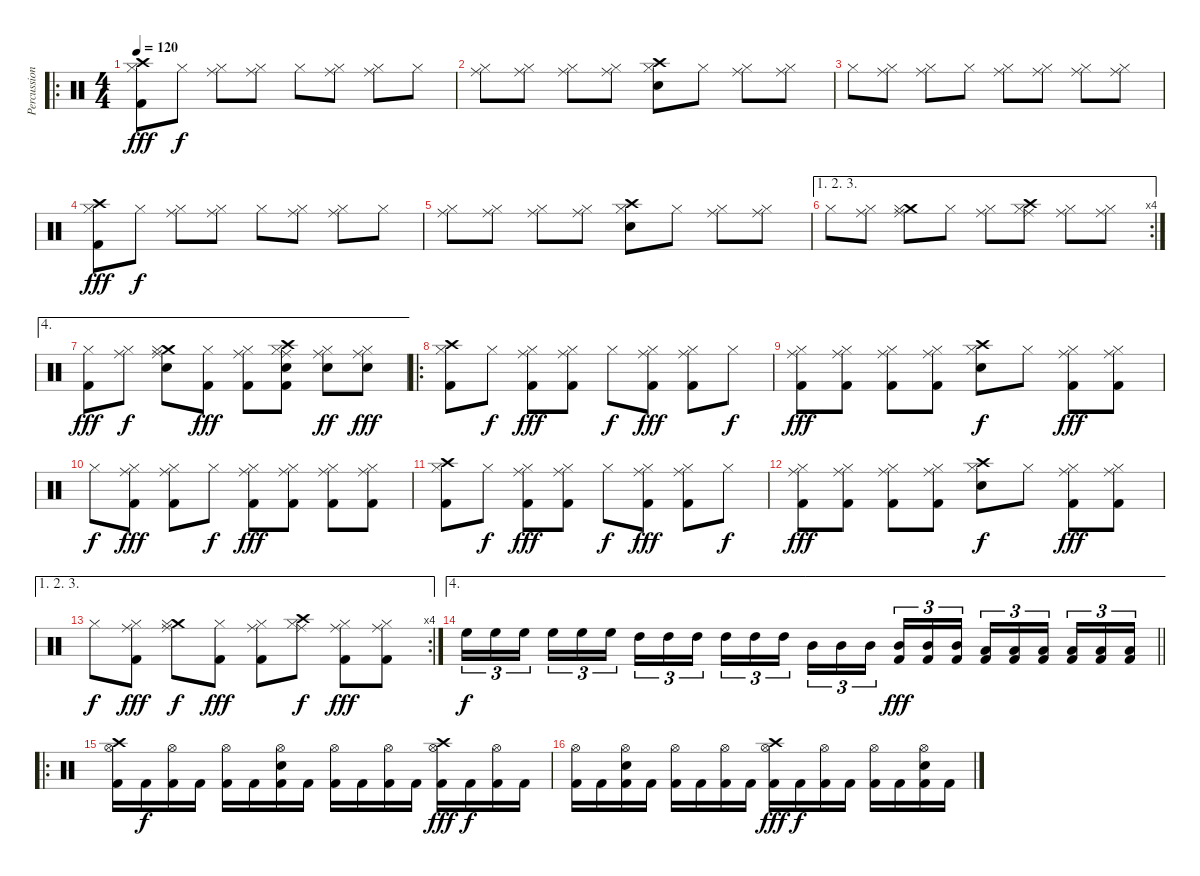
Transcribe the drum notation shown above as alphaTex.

\track ("Percussion" "Percussion") {instrument percussion}
\staff {score}
\articulation defaults
\ro
\ts (4 4)
\tempo 120
\clef neutral
\ks c
("Crash high (hit)" "Hi-Hat (closed)" "Kick (hit) 2").8{dy fff} "Hi-Hat (closed)".8{dy f} ("Ride (middle)" "Hi-Hat (closed)").8 ("Ride (middle)" "Hi-Hat (closed)").8 "Hi-Hat (closed)".8 ("Ride (middle)" "Hi-Hat (closed)").8 ("Ride (middle)" "Hi-Hat (closed)").8 "Hi-Hat (closed)".8 |
("Ride (middle)" "Hi-Hat (closed)").8 ("Ride (middle)" "Hi-Hat (closed)").8 ("Ride (middle)" "Hi-Hat (closed)").8 ("Ride (middle)" "Hi-Hat (closed)").8 ("Crash high (hit)" "Snare (hit) 2" "Hi-Hat (closed)").8 "Hi-Hat (closed)".8 ("Ride (middle)" "Hi-Hat (closed)").8 ("Ride (middle)" "Hi-Hat (closed)").8 |
"Hi-Hat (closed)".8 ("Ride (middle)" "Hi-Hat (closed)").8 ("Ride (middle)" "Hi-Hat (closed)").8 "Hi-Hat (closed)".8 ("Ride (middle)" "Hi-Hat (closed)").8 ("Ride (middle)" "Hi-Hat (closed)").8 ("Ride (middle)" "Hi-Hat (closed)").8 ("Ride (middle)" "Hi-Hat (closed)").8 |
("Crash high (hit)" "Hi-Hat (closed)" "Kick (hit) 2").8{dy fff} "Hi-Hat (closed)".8{dy f} ("Ride (middle)" "Hi-Hat (closed)").8 ("Ride (middle)" "Hi-Hat (closed)").8 "Hi-Hat (closed)".8 ("Ride (middle)" "Hi-Hat (closed)").8 ("Ride (middle)" "Hi-Hat (closed)").8 "Hi-Hat (closed)".8 |
("Ride (middle)" "Hi-Hat (closed)").8 ("Ride (middle)" "Hi-Hat (closed)").8 ("Ride (middle)" "Hi-Hat (closed)").8 ("Ride (middle)" "Hi-Hat (closed)").8 ("Crash high (hit)" "Snare (hit) 2" "Hi-Hat (closed)").8 "Hi-Hat (closed)".8 ("Ride (middle)" "Hi-Hat (closed)").8 ("Ride (middle)" "Hi-Hat (closed)").8 |
\ae (1 2 3)
\rc 4 "Hi-Hat (closed)".8
("Ride (middle)" "Hi-Hat (closed)").8 ("Crash medium (hit)" "Ride (middle)" "Hi-Hat (closed)").8 "Hi-Hat (closed)".8 ("Ride (middle)" "Hi-Hat (closed)").8 ("Crash high (hit)" "Ride (middle)" "Hi-Hat (closed)").8 ("Ride (middle)" "Hi-Hat (closed)").8 ("Ride (middle)" "Hi-Hat (closed)").8 |
\ae 4
("Hi-Hat (closed)" "Kick (hit) 2").8{dy fff} ("Ride (middle)" "Hi-Hat (closed)").8{dy f} ("Crash medium (hit)" "Ride (middle)" "Snare (hit) 2" "Hi-Hat (closed)").8 ("Hi-Hat (closed)" "Kick (hit) 2").8{dy fff} ("Ride (middle)" "Hi-Hat (closed)" "Kick (hit) 2").8 ("Crash high (hit)" "Ride (middle)" "Snare (hit) 2" "Hi-Hat (closed)" "Kick (hit) 2").8 ("Ride (middle)" "Snare (hit) 2" "Hi-Hat (closed)").8{dy ff} ("Ride (middle)" "Snare (hit) 2" "Hi-Hat (closed)").8{dy fff} |
\ro
("Crash high (hit)" "Hi-Hat (closed)" "Kick (hit) 2").8 "Hi-Hat (closed)".8{dy f} ("Ride (middle)" "Hi-Hat (closed)" "Kick (hit) 2").8{dy fff} ("Ride (middle)" "Hi-Hat (closed)" "Kick (hit) 2").8 "Hi-Hat (closed)".8{dy f} ("Ride (middle)" "Hi-Hat (closed)" "Kick (hit) 2").8{dy fff} ("Ride (middle)" "Hi-Hat (closed)" "Kick (hit) 2").8 "Hi-Hat (closed)".8{dy f} |
("Ride (middle)" "Hi-Hat (closed)" "Kick (hit) 2").8{dy fff} ("Ride (middle)" "Hi-Hat (closed)" "Kick (hit) 2").8 ("Ride (middle)" "Hi-Hat (closed)" "Kick (hit) 2").8 ("Ride (middle)" "Hi-Hat (closed)" "Kick (hit) 2").8 ("Crash high (hit)" "Snare (hit) 2" "Hi-Hat (closed)").8{dy f} "Hi-Hat (closed)".8 ("Ride (middle)" "Hi-Hat (closed)" "Kick (hit) 2").8{dy fff} ("Ride (middle)" "Hi-Hat (closed)" "Kick (hit) 2").8 |
"Hi-Hat (closed)".8{dy f} ("Ride (middle)" "Hi-Hat (closed)" "Kick (hit) 2").8{dy fff} ("Ride (middle)" "Hi-Hat (closed)" "Kick (hit) 2").8 "Hi-Hat (closed)".8{dy f} ("Ride (middle)" "Hi-Hat (closed)" "Kick (hit) 2").8{dy fff} ("Ride (middle)" "Hi-Hat (closed)" "Kick (hit) 2").8 ("Ride (middle)" "Hi-Hat (closed)" "Kick (hit) 2").8 ("Ride (middle)" "Hi-Hat (closed)" "Kick (hit) 2").8 |
("Crash high (hit)" "Hi-Hat (closed)" "Kick (hit) 2").8 "Hi-Hat (closed)".8{dy f} ("Ride (middle)" "Hi-Hat (closed)" "Kick (hit) 2").8{dy fff} ("Ride (middle)" "Hi-Hat (closed)" "Kick (hit) 2").8 "Hi-Hat (closed)".8{dy f} ("Ride (middle)" "Hi-Hat (closed)" "Kick (hit) 2").8{dy fff} ("Ride (middle)" "Hi-Hat (closed)" "Kick (hit) 2").8 "Hi-Hat (closed)".8{dy f} |
("Ride (middle)" "Hi-Hat (closed)" "Kick (hit) 2").8{dy fff} ("Ride (middle)" "Hi-Hat (closed)" "Kick (hit) 2").8 ("Ride (middle)" "Hi-Hat (closed)" "Kick (hit) 2").8 ("Ride (middle)" "Hi-Hat (closed)" "Kick (hit) 2").8 ("Crash high (hit)" "Snare (hit) 2" "Hi-Hat (closed)").8{dy f} "Hi-Hat (closed)".8 ("Ride (middle)" "Hi-Hat (closed)" "Kick (hit) 2").8{dy fff} ("Ride (middle)" "Hi-Hat (closed)" "Kick (hit) 2").8 |
\ae (1 2 3)
\rc 4 "Hi-Hat (closed)".8{dy f}
("Ride (middle)" "Hi-Hat (closed)" "Kick (hit) 2").8{dy fff} ("Crash medium (hit)" "Ride (middle)" "Hi-Hat (closed)").8{dy f} ("Hi-Hat (closed)" "Kick (hit) 2").8{dy fff} ("Ride (middle)" "Hi-Hat (closed)" "Kick (hit) 2").8 ("Crash high (hit)" "Ride (middle)" "Hi-Hat (closed)").8{dy f} ("Ride (middle)" "Hi-Hat (closed)" "Kick (hit) 2").8{dy fff} ("Ride (middle)" "Hi-Hat (closed)" "Kick (hit) 2").8 |
\ae 4
\barLineRight lightlight "High Floor Tom (hit)".16{tu (3 2) dy f} "High Floor Tom (hit)".16{tu (3 2)} "High Floor Tom (hit)".16{tu (3 2) beam splitsecondary} "High Floor Tom (hit)".16{tu (3 2)} "High Floor Tom (hit)".16{tu (3 2)} "High Floor Tom (hit)".16{tu (3 2)} "High Tom (hit)".16{tu (3 2)} "High Tom (hit)".16{tu (3 2)} "High Tom (hit)".16{tu (3 2) beam splitsecondary} "High Tom (hit)".16{tu (3 2)} "High Tom (hit)".16{tu (3 2)} "High Tom (hit)".16{tu (3 2)} "Mid Tom (hit)".16{tu (3 2)} "Mid Tom (hit)".16{tu (3 2)} "Mid Tom (hit)".16{tu (3 2) beam splitsecondary}
("Mid Tom (hit)" "Kick (hit) 2").16{tu (3 2) dy fff} ("Mid Tom (hit)" "Kick (hit) 2").16{tu (3 2)} ("Mid Tom (hit)" "Kick (hit) 2").16{tu (3 2)} ("Low Tom (hit)" "Kick (hit) 2").16{tu (3 2)} ("Low Tom (hit)" "Kick (hit) 2").16{tu (3 2)} ("Low Tom (hit)" "Kick (hit) 2").16{tu (3 2) beam splitsecondary} ("Low Tom (hit)" "Kick (hit) 2").16{tu (3 2)} ("Low Tom (hit)" "Kick (hit) 2").16{tu (3 2)} ("Low Tom (hit)" "Kick (hit) 2").16{tu (3 2)} |
\ro
("Crash high (hit)" "Hi-Hat (open)" "Kick (hit) 2").16 "Kick (hit) 2".16{dy f} ("Hi-Hat (open)" "Kick (hit) 2").16 "Kick (hit) 2".16 ("Hi-Hat (open)" "Kick (hit) 2").16 "Kick (hit) 2".16 ("Hi-Hat (open)" "Snare (hit) 2" "Kick (hit) 2").16 "Kick (hit) 2".16 ("Hi-Hat (open)" "Kick (hit) 2").16 "Kick (hit) 2".16 ("Hi-Hat (open)" "Kick (hit) 2").16 "Kick (hit) 2".16 ("Crash high (hit)" "Hi-Hat (open)" "Kick (hit) 2").16{dy fff} "Kick (hit) 2".16{dy f} ("Hi-Hat (open)" "Kick (hit) 2").16 "Kick (hit) 2".16 |
("Hi-Hat (open)" "Kick (hit) 2").16 "Kick (hit) 2".16 ("Hi-Hat (open)" "Snare (hit) 2" "Kick (hit) 2").16 "Kick (hit) 2".16 ("Hi-Hat (open)" "Kick (hit) 2").16 "Kick (hit) 2".16 ("Hi-Hat (open)" "Kick (hit) 2").16 "Kick (hit) 2".16 ("Crash high (hit)" "Hi-Hat (open)" "Kick (hit) 2").16{dy fff} "Kick (hit) 2".16{dy f} ("Hi-Hat (open)" "Kick (hit) 2").16 "Kick (hit) 2".16 ("Hi-Hat (open)" "Kick (hit) 2").16 "Kick (hit) 2".16 ("Hi-Hat (open)" "Snare (hit) 2" "Kick (hit) 2").16 "Kick (hit) 2".16
